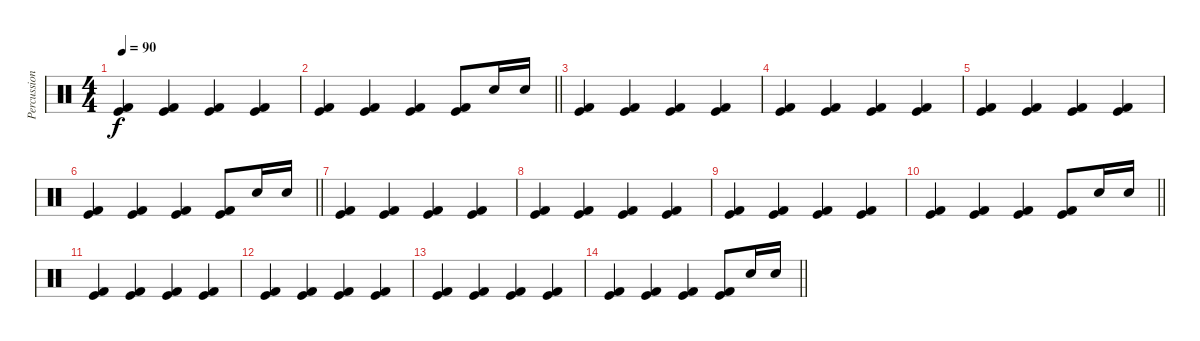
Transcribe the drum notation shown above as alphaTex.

\track ("Percussion" "Percussion") {instrument percussion}
\staff {score}
\articulation defaults
\ts (4 4)
\tempo 90
\clef neutral
\ks c
("Kick (hit)" "Kick (hit) 2").4{dy f} ("Kick (hit)" "Kick (hit) 2").4 ("Kick (hit)" "Kick (hit) 2").4 ("Kick (hit)" "Kick (hit) 2").4 |
\barLineRight lightlight
("Kick (hit)" "Kick (hit) 2").4 ("Kick (hit)" "Kick (hit) 2").4 ("Kick (hit)" "Kick (hit) 2").4 ("Kick (hit)" "Kick (hit) 2").8 "Electric Snare (hit)".16 "Electric Snare (hit)".16 |
("Kick (hit)" "Kick (hit) 2").4 ("Kick (hit)" "Kick (hit) 2").4 ("Kick (hit)" "Kick (hit) 2").4 ("Kick (hit)" "Kick (hit) 2").4 |
("Kick (hit)" "Kick (hit) 2").4 ("Kick (hit)" "Kick (hit) 2").4 ("Kick (hit)" "Kick (hit) 2").4 ("Kick (hit)" "Kick (hit) 2").4 |
("Kick (hit)" "Kick (hit) 2").4 ("Kick (hit)" "Kick (hit) 2").4 ("Kick (hit)" "Kick (hit) 2").4 ("Kick (hit)" "Kick (hit) 2").4 |
\barLineRight lightlight
("Kick (hit)" "Kick (hit) 2").4 ("Kick (hit)" "Kick (hit) 2").4 ("Kick (hit)" "Kick (hit) 2").4 ("Kick (hit)" "Kick (hit) 2").8 "Electric Snare (hit)".16 "Electric Snare (hit)".16 |
("Kick (hit)" "Kick (hit) 2").4 ("Kick (hit)" "Kick (hit) 2").4 ("Kick (hit)" "Kick (hit) 2").4 ("Kick (hit)" "Kick (hit) 2").4 |
("Kick (hit)" "Kick (hit) 2").4 ("Kick (hit)" "Kick (hit) 2").4 ("Kick (hit)" "Kick (hit) 2").4 ("Kick (hit)" "Kick (hit) 2").4 |
("Kick (hit)" "Kick (hit) 2").4 ("Kick (hit)" "Kick (hit) 2").4 ("Kick (hit)" "Kick (hit) 2").4 ("Kick (hit)" "Kick (hit) 2").4 |
\barLineRight lightlight
("Kick (hit)" "Kick (hit) 2").4 ("Kick (hit)" "Kick (hit) 2").4 ("Kick (hit)" "Kick (hit) 2").4 ("Kick (hit)" "Kick (hit) 2").8 "Electric Snare (hit)".16 "Electric Snare (hit)".16 |
\section ("" "")
("Kick (hit)" "Kick (hit) 2").4 ("Kick (hit)" "Kick (hit) 2").4 ("Kick (hit)" "Kick (hit) 2").4 ("Kick (hit)" "Kick (hit) 2").4 |
("Kick (hit)" "Kick (hit) 2").4 ("Kick (hit)" "Kick (hit) 2").4 ("Kick (hit)" "Kick (hit) 2").4 ("Kick (hit)" "Kick (hit) 2").4 |
("Kick (hit)" "Kick (hit) 2").4 ("Kick (hit)" "Kick (hit) 2").4 ("Kick (hit)" "Kick (hit) 2").4 ("Kick (hit)" "Kick (hit) 2").4 |
\barLineRight lightlight
("Kick (hit)" "Kick (hit) 2").4 ("Kick (hit)" "Kick (hit) 2").4 ("Kick (hit)" "Kick (hit) 2").4 ("Kick (hit)" "Kick (hit) 2").8 "Electric Snare (hit)".16 "Electric Snare (hit)".16
